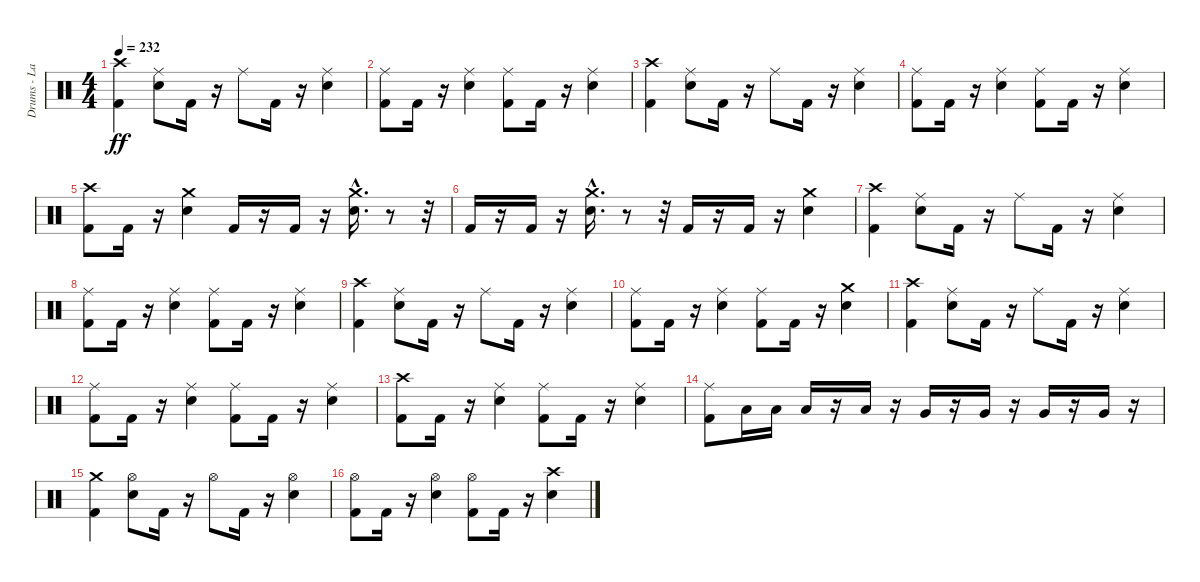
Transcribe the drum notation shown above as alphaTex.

\track ("Drums - Larzon" "Drums - La") {instrument percussion}
\staff {score}
\articulation defaults
\ts (4 4)
\tempo 232
\clef neutral
\ks c
("Crash high (hit)" "Kick (hit) 2").4{dy ff} ("Ride (middle)" "Electric Snare (hit)").8 "Kick (hit) 2".16 r.16 "Ride (middle)".8 "Kick (hit) 2".16 r.16 ("Ride (middle)" "Electric Snare (hit)").4 |
("Ride (middle)" "Kick (hit) 2").8 "Kick (hit) 2".16 r.16 ("Ride (middle)" "Electric Snare (hit)").4 ("Ride (middle)" "Kick (hit) 2").8 "Kick (hit) 2".16 r.16 ("Ride (middle)" "Electric Snare (hit)").4 |
("Crash high (hit)" "Kick (hit) 2").4 ("Ride (middle)" "Electric Snare (hit)").8 "Kick (hit) 2".16 r.16 "Ride (middle)".8 "Kick (hit) 2".16 r.16 ("Ride (middle)" "Electric Snare (hit)").4 |
("Ride (middle)" "Kick (hit) 2").8 "Kick (hit) 2".16 r.16 ("Ride (middle)" "Electric Snare (hit)").4 ("Ride (middle)" "Kick (hit) 2").8 "Kick (hit) 2".16 r.16 ("Ride (middle)" "Electric Snare (hit)").4 |
("Crash high (hit)" "Kick (hit) 2").8 "Kick (hit) 2".16 r.16 ("Crash medium (hit)" "Electric Snare (hit)").4 "Kick (hit) 2".16 r.16 "Kick (hit) 2".16 r.16 ("Crash medium (hit)"{hac} "Electric Snare (hit)").16{d} r.8 r.32 |
"Kick (hit) 2".16 r.16 "Kick (hit) 2".16 r.16 ("Crash medium (hit)"{hac} "Electric Snare (hit)").16{d} r.8 r.32 "Kick (hit) 2".16 r.16 "Kick (hit) 2".16 r.16 ("Crash medium (hit)" "Electric Snare (hit)").4 |
("Crash high (hit)" "Kick (hit) 2").4 ("Ride (middle)" "Electric Snare (hit)").8 "Kick (hit) 2".16 r.16 "Ride (middle)".8 "Kick (hit) 2".16 r.16 ("Ride (middle)" "Electric Snare (hit)").4 |
("Ride (middle)" "Kick (hit) 2").8 "Kick (hit) 2".16 r.16 ("Ride (middle)" "Electric Snare (hit)").4 ("Ride (middle)" "Kick (hit) 2").8 "Kick (hit) 2".16 r.16 ("Electric Snare (hit)" "Ride (middle)").4 |
("Crash high (hit)" "Kick (hit) 2").4 ("Ride (middle)" "Electric Snare (hit)").8 "Kick (hit) 2".16 r.16 "Ride (middle)".8 "Kick (hit) 2".16 r.16 ("Ride (middle)" "Electric Snare (hit)").4 |
("Ride (middle)" "Kick (hit) 2").8 "Kick (hit) 2".16 r.16 ("Ride (middle)" "Electric Snare (hit)").4 ("Ride (middle)" "Kick (hit) 2").8 "Kick (hit) 2".16 r.16 ("Electric Snare (hit)" "Crash medium (hit)").4 |
("Crash high (hit)" "Kick (hit) 2").4 ("Ride (middle)" "Electric Snare (hit)").8 "Kick (hit) 2".16 r.16 "Ride (middle)".8 "Kick (hit) 2".16 r.16 ("Ride (middle)" "Electric Snare (hit)").4 |
("Ride (middle)" "Kick (hit) 2").8 "Kick (hit) 2".16 r.16 ("Ride (middle)" "Electric Snare (hit)").4 ("Ride (middle)" "Kick (hit) 2").8 "Kick (hit) 2".16 r.16 ("Ride (middle)" "Electric Snare (hit)").4 |
("Crash high (hit)" "Kick (hit) 2").8 "Kick (hit) 2".16 r.16 ("Electric Snare (hit)" "Ride (middle)").4 ("Kick (hit) 2" "Ride (middle)").8 "Kick (hit) 2".16 r.16 ("Electric Snare (hit)" "Ride (middle)").4 |
("Kick (hit) 2" "Ride (middle)").8 "Low Tom (hit)".16 "Low Tom (hit)".16 "Low Tom (hit)".16 r.16 "Low Tom (hit)".16 r.16 "Very Low Tom (hit)".16 r.16 "Very Low Tom (hit)".16 r.16 "Very Low Tom (hit)".16 r.16 "Very Low Tom (hit)".16 r.16 |
("Kick (hit) 2" "Crash medium (hit)").4 ("Electric Snare (hit)" "Hi-Hat (open)").8 "Kick (hit) 2".16 r.16 "Hi-Hat (open)".8 "Kick (hit) 2".16 r.16 ("Electric Snare (hit)" "Hi-Hat (open)").4 |
("Kick (hit) 2" "Hi-Hat (open)").8 "Kick (hit) 2".16 r.16 ("Electric Snare (hit)" "Hi-Hat (open)").4 ("Kick (hit) 2" "Hi-Hat (open)").8 "Kick (hit) 2".16 r.16 ("Electric Snare (hit)" "Crash high (hit)").4
